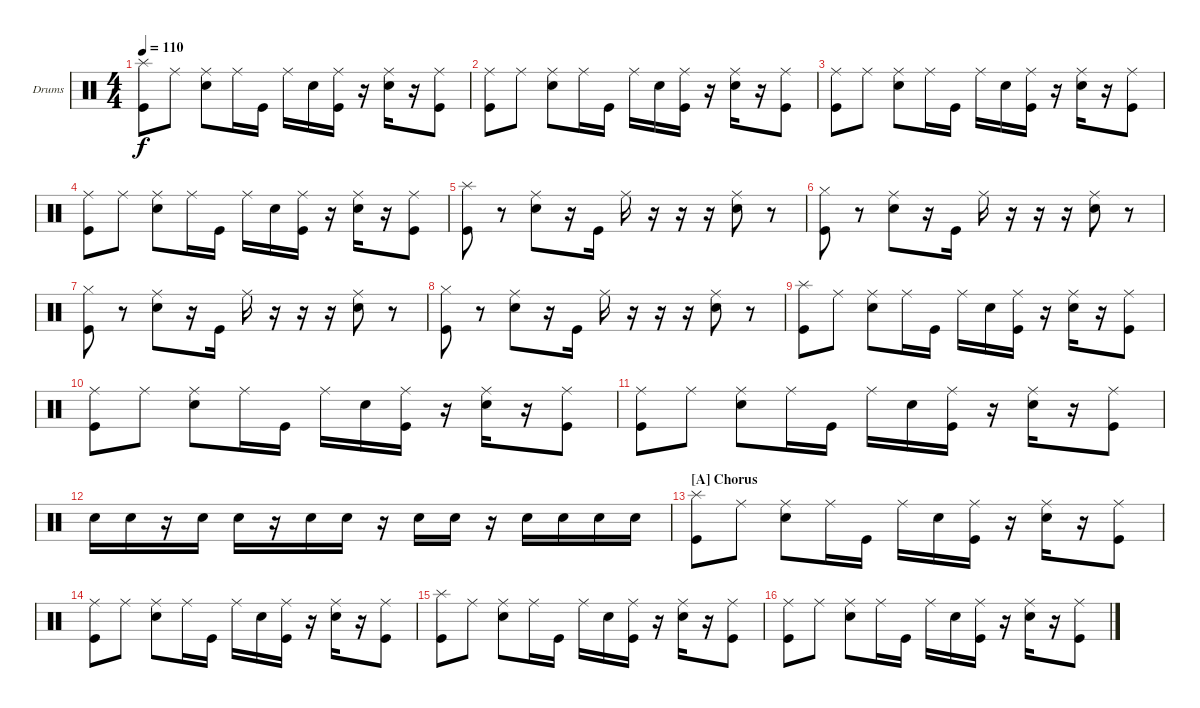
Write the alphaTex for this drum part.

\defaultSystemsLayout 4
\bracketExtendMode groupsimilarinstruments
\firstSystemTrackNameOrientation horizontal
\otherSystemsTrackNameOrientation horizontal
\track ("Drumkit" "Drums") {instrument percussion}
\staff {score}
\articulation defaults
\ts (4 4)
\tempo 110
\clef neutral
\ks c
("Splash (hit)" "Kick (hit)").8{dy f} "Ride (middle)".8 ("Snare (hit) 2" "Ride (middle)").8 "Ride (middle)".16 "Kick (hit)".16 "Ride (middle)".16 "Snare (hit) 2".16 ("Kick (hit)" "Ride (middle)").16 r.16 ("Snare (hit) 2" "Ride (middle)").16 r.16 ("Kick (hit)" "Ride (middle)").8 |
("Kick (hit)" "Ride (middle)").8 "Ride (middle)".8 ("Snare (hit) 2" "Ride (middle)").8 "Ride (middle)".16 "Kick (hit)".16 "Ride (middle)".16 "Snare (hit) 2".16 ("Kick (hit)" "Ride (middle)").16 r.16 ("Snare (hit) 2" "Ride (middle)").16 r.16 ("Kick (hit)" "Ride (middle)").8 |
("Kick (hit)" "Ride (middle)").8 "Ride (middle)".8 ("Snare (hit) 2" "Ride (middle)").8 "Ride (middle)".16 "Kick (hit)".16 "Ride (middle)".16 "Snare (hit) 2".16 ("Kick (hit)" "Ride (middle)").16 r.16 ("Snare (hit) 2" "Ride (middle)").16 r.16 ("Kick (hit)" "Ride (middle)").8 |
("Kick (hit)" "Ride (middle)").8 "Ride (middle)".8 ("Snare (hit) 2" "Ride (middle)").8 "Ride (middle)".16 "Kick (hit)".16 "Ride (middle)".16 "Snare (hit) 2".16 ("Kick (hit)" "Ride (middle)").16 r.16 ("Snare (hit) 2" "Ride (middle)").16 r.16 ("Kick (hit)" "Ride (middle)").8 |
("Splash (hit)" "Kick (hit)").8 r.8 ("Snare (hit) 2" "Ride (middle)").8 r.16 "Kick (hit)".16 "Ride (middle)".16 r.16 r.16 r.16 ("Snare (hit) 2" "Ride (middle)").8 r.8 |
("Kick (hit)" "Hi-Hat (closed)").8 r.8 ("Snare (hit) 2" "Ride (middle)").8 r.16 "Kick (hit)".16 "Ride (middle)".16 r.16 r.16 r.16 ("Snare (hit) 2" "Ride (middle)").8 r.8 |
("Kick (hit)" "Hi-Hat (closed)").8 r.8 ("Snare (hit) 2" "Ride (middle)").8 r.16 "Kick (hit)".16 "Ride (middle)".16 r.16 r.16 r.16 ("Snare (hit) 2" "Ride (middle)").8 r.8 |
("Kick (hit)" "Hi-Hat (closed)").8 r.8 ("Snare (hit) 2" "Ride (middle)").8 r.16 "Kick (hit)".16 "Ride (middle)".16 r.16 r.16 r.16 ("Snare (hit) 2" "Ride (middle)").8 r.8 |
("Splash (hit)" "Kick (hit)").8 "Ride (middle)".8 ("Snare (hit) 2" "Ride (middle)").8 "Ride (middle)".16 "Kick (hit)".16 "Ride (middle)".16 "Snare (hit) 2".16 ("Kick (hit)" "Ride (middle)").16 r.16 ("Snare (hit) 2" "Ride (middle)").16 r.16 ("Kick (hit)" "Ride (middle)").8 |
("Kick (hit)" "Ride (middle)").8 "Ride (middle)".8 ("Snare (hit) 2" "Ride (middle)").8 "Ride (middle)".16 "Kick (hit)".16 "Ride (middle)".16 "Snare (hit) 2".16 ("Kick (hit)" "Ride (middle)").16 r.16 ("Snare (hit) 2" "Ride (middle)").16 r.16 ("Kick (hit)" "Ride (middle)").8 |
("Kick (hit)" "Ride (middle)").8 "Ride (middle)".8 ("Snare (hit) 2" "Ride (middle)").8 "Ride (middle)".16 "Kick (hit)".16 "Ride (middle)".16 "Snare (hit) 2".16 ("Kick (hit)" "Ride (middle)").16 r.16 ("Snare (hit) 2" "Ride (middle)").16 r.16 ("Kick (hit)" "Ride (middle)").8 |
"Snare (hit) 2".16 "Snare (hit) 2".16 r.16 "Snare (hit) 2".16 "Snare (hit) 2".16 r.16 "Snare (hit) 2".16 "Snare (hit) 2".16 r.16 "Snare (hit) 2".16 "Snare (hit) 2".16 r.16 "Snare (hit) 2".16 "Snare (hit) 2".16 "Snare (hit) 2".16 "Snare (hit) 2".16 |
\section ("A" "Chorus")
("Splash (hit)" "Kick (hit)").8 "Ride (middle)".8 ("Snare (hit) 2" "Ride (middle)").8 "Ride (middle)".16 "Kick (hit)".16 "Ride (middle)".16 "Snare (hit) 2".16 ("Kick (hit)" "Ride (middle)").16 r.16 ("Snare (hit) 2" "Ride (middle)").16 r.16 ("Kick (hit)" "Ride (middle)").8 |
("Kick (hit)" "Ride (middle)").8 "Ride (middle)".8 ("Snare (hit) 2" "Ride (middle)").8 "Ride (middle)".16 "Kick (hit)".16 "Ride (middle)".16 "Snare (hit) 2".16 ("Kick (hit)" "Ride (middle)").16 r.16 ("Snare (hit) 2" "Ride (middle)").16 r.16 ("Kick (hit)" "Ride (middle)").8 |
("Splash (hit)" "Kick (hit)").8 "Ride (middle)".8 ("Snare (hit) 2" "Ride (middle)").8 "Ride (middle)".16 "Kick (hit)".16 "Ride (middle)".16 "Snare (hit) 2".16 ("Kick (hit)" "Ride (middle)").16 r.16 ("Snare (hit) 2" "Ride (middle)").16 r.16 ("Kick (hit)" "Ride (middle)").8 |
("Kick (hit)" "Ride (middle)").8 "Ride (middle)".8 ("Snare (hit) 2" "Ride (middle)").8 "Ride (middle)".16 "Kick (hit)".16 "Ride (middle)".16 "Snare (hit) 2".16 ("Kick (hit)" "Ride (middle)").16 r.16 ("Snare (hit) 2" "Ride (middle)").16 r.16 ("Kick (hit)" "Ride (middle)").8
